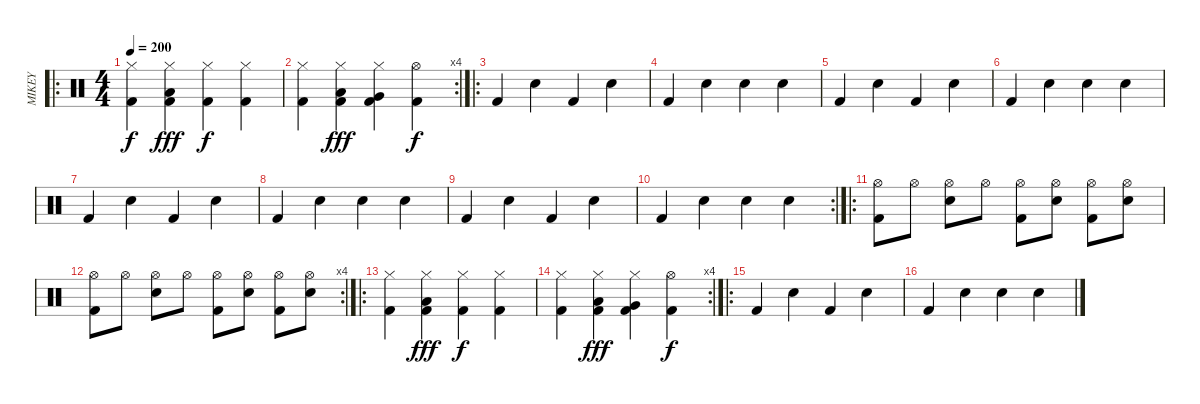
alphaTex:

\track ("MIKEY" "MIKEY") {instrument percussion}
\staff {score}
\articulation defaults
\ro
\ts (4 4)
\tempo 200
\clef neutral
\ks c
("Hi-Hat (closed)" "Kick (hit) 2").4{dy f} ("Hi-Hat (closed)" "Low Tom (hit)" "Kick (hit) 2").4{dy fff} ("Hi-Hat (closed)" "Kick (hit) 2").4{dy f} ("Hi-Hat (closed)" "Kick (hit) 2").4 |
\rc 4
("Hi-Hat (closed)" "Kick (hit) 2").4 ("Hi-Hat (closed)" "Low Tom (hit)" "Kick (hit) 2").4{dy fff} ("Hi-Hat (closed)" "Very Low Tom (hit)" "Kick (hit) 2").4 ("Hi-Hat (open)" "Kick (hit) 2").4{dy f} |
\ro "Kick (hit) 2".4 "Snare (hit) 2".4 "Kick (hit) 2".4 "Snare (hit) 2".4
|
"Kick (hit) 2".4 "Snare (hit) 2".4 "Snare (hit) 2".4 "Snare (hit) 2".4 |
"Kick (hit) 2".4 "Snare (hit) 2".4 "Kick (hit) 2".4 "Snare (hit) 2".4 |
"Kick (hit) 2".4 "Snare (hit) 2".4 "Snare (hit) 2".4 "Snare (hit) 2".4 |
"Kick (hit) 2".4 "Snare (hit) 2".4 "Kick (hit) 2".4 "Snare (hit) 2".4 |
"Kick (hit) 2".4 "Snare (hit) 2".4 "Snare (hit) 2".4 "Snare (hit) 2".4 |
"Kick (hit) 2".4 "Snare (hit) 2".4 "Kick (hit) 2".4 "Snare (hit) 2".4 |
\rc 2 "Kick (hit) 2".4 "Snare (hit) 2".4 "Snare (hit) 2".4 "Snare (hit) 2".4
|
\ro
("Hi-Hat (open)" "Kick (hit) 2").8 "Hi-Hat (open)".8 ("Hi-Hat (open)" "Electric Snare (hit)").8 "Hi-Hat (open)".8 ("Hi-Hat (open)" "Kick (hit) 2").8 ("Hi-Hat (open)" "Electric Snare (hit)").8 ("Hi-Hat (open)" "Kick (hit) 2").8 ("Hi-Hat (open)" "Electric Snare (hit)").8 |
\rc 4
("Hi-Hat (open)" "Kick (hit) 2").8 "Hi-Hat (open)".8 ("Hi-Hat (open)" "Electric Snare (hit)").8 "Hi-Hat (open)".8 ("Hi-Hat (open)" "Kick (hit) 2").8 ("Hi-Hat (open)" "Electric Snare (hit)").8 ("Hi-Hat (open)" "Kick (hit) 2").8 ("Hi-Hat (open)" "Electric Snare (hit)").8 |
\ro
("Hi-Hat (closed)" "Kick (hit) 2").4 ("Hi-Hat (closed)" "Low Tom (hit)" "Kick (hit) 2").4{dy fff} ("Hi-Hat (closed)" "Kick (hit) 2").4{dy f} ("Hi-Hat (closed)" "Kick (hit) 2").4 |
\rc 4
("Hi-Hat (closed)" "Kick (hit) 2").4 ("Hi-Hat (closed)" "Low Tom (hit)" "Kick (hit) 2").4{dy fff} ("Hi-Hat (closed)" "Very Low Tom (hit)" "Kick (hit) 2").4 ("Hi-Hat (open)" "Kick (hit) 2").4{dy f} |
\ro "Kick (hit) 2".4 "Snare (hit) 2".4 "Kick (hit) 2".4 "Snare (hit) 2".4
|
"Kick (hit) 2".4 "Snare (hit) 2".4 "Snare (hit) 2".4 "Snare (hit) 2".4
